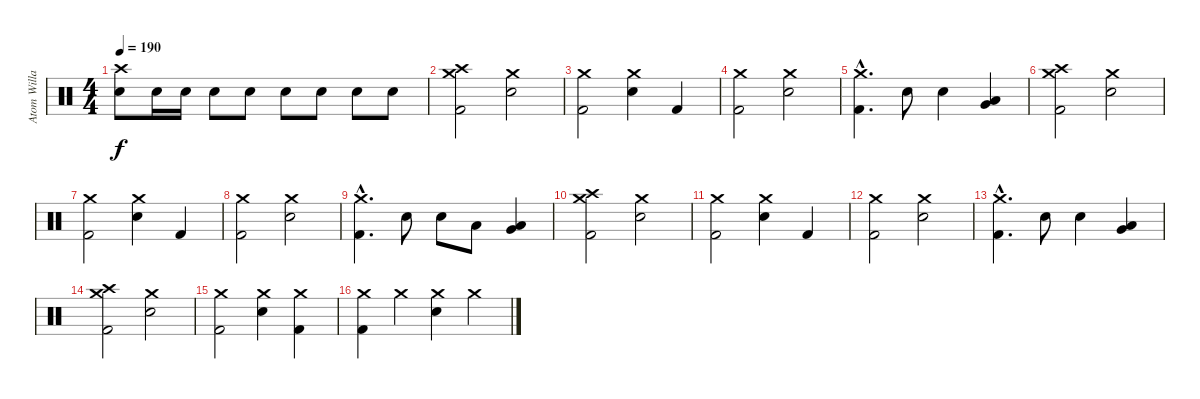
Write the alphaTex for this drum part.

\track ("Atom Willard" "Atom Willa") {instrument percussion}
\staff {score}
\articulation defaults
\ts (4 4)
\tempo 190
\clef neutral
\ks c
("Crash high (hit)" "Electric Snare (hit)").8{dy f} "Electric Snare (hit)".16 "Electric Snare (hit)".16 "Electric Snare (hit)".8 "Electric Snare (hit)".8 "Electric Snare (hit)".8 "Electric Snare (hit)".8 "Electric Snare (hit)".8 "Electric Snare (hit)".8 |
("Crash high (hit)" "Crash medium (hit)" "Kick (hit) 2").2 ("Crash medium (hit)" "Electric Snare (hit)").2 |
("Crash medium (hit)" "Kick (hit) 2").2 ("Crash medium (hit)" "Electric Snare (hit)").4 "Kick (hit) 2".4 |
("Crash medium (hit)" "Kick (hit) 2").2 ("Crash medium (hit)" "Electric Snare (hit)").2 |
("Crash medium (hit)"{hac} "Kick (hit) 2"{hac}).4{d} "Electric Snare (hit)".8 "Electric Snare (hit)".4 ("Very Low Tom (hit)" "Low Floor Tom (hit)").4 |
("Crash high (hit)" "Crash medium (hit)" "Kick (hit) 2").2 ("Crash medium (hit)" "Electric Snare (hit)").2 |
("Crash medium (hit)" "Kick (hit) 2").2 ("Crash medium (hit)" "Electric Snare (hit)").4 "Kick (hit) 2".4 |
("Crash medium (hit)" "Kick (hit) 2").2 ("Crash medium (hit)" "Electric Snare (hit)").2 |
("Crash medium (hit)"{hac} "Kick (hit) 2"{hac}).4{d} "Electric Snare (hit)".8 "Electric Snare (hit)".8 "Low Tom (hit)".8 ("Very Low Tom (hit)" "Low Floor Tom (hit)").4 |
("Crash high (hit)" "Crash medium (hit)" "Kick (hit) 2").2 ("Crash medium (hit)" "Electric Snare (hit)").2 |
("Crash medium (hit)" "Kick (hit) 2").2 ("Crash medium (hit)" "Electric Snare (hit)").4 "Kick (hit) 2".4 |
("Crash medium (hit)" "Kick (hit) 2").2 ("Crash medium (hit)" "Electric Snare (hit)").2 |
("Crash medium (hit)"{hac} "Kick (hit) 2"{hac}).4{d} "Electric Snare (hit)".8 "Electric Snare (hit)".4 ("Very Low Tom (hit)" "Low Floor Tom (hit)").4 |
("Crash high (hit)" "Crash medium (hit)" "Kick (hit) 2").2 ("Crash medium (hit)" "Electric Snare (hit)").2 |
("Crash medium (hit)" "Kick (hit) 2").2 ("Crash medium (hit)" "Electric Snare (hit)").4 ("Crash medium (hit)" "Kick (hit) 2").4 |
("Crash medium (hit)" "Kick (hit) 2").4 "Crash medium (hit)".4 ("Crash medium (hit)" "Electric Snare (hit)").4 "Crash medium (hit)".4
